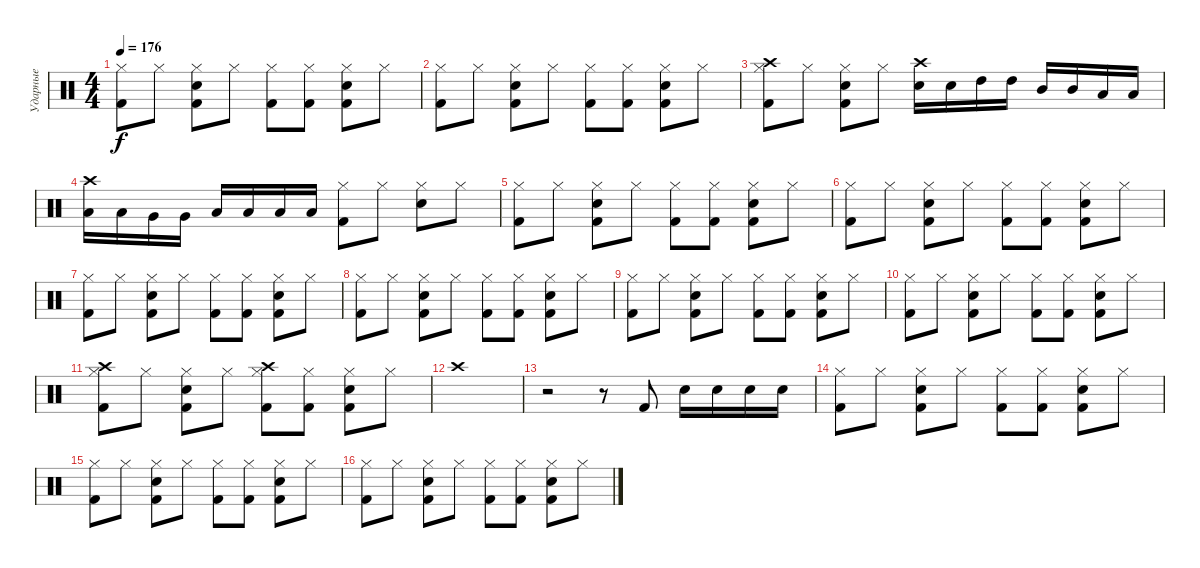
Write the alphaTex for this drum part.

\track ("Ударные" "Ударные") {instrument percussion}
\staff {score}
\articulation defaults
\ts (4 4)
\tempo 176
\clef neutral
\ks c
("Hi-Hat (closed)" "Kick (hit) 2").8{dy f} "Hi-Hat (closed)".8 ("Hi-Hat (closed)" "Kick (hit) 2" "Snare (hit) 2").8 "Hi-Hat (closed)".8 ("Hi-Hat (closed)" "Kick (hit) 2").8 ("Hi-Hat (closed)" "Kick (hit) 2").8 ("Hi-Hat (closed)" "Kick (hit) 2" "Snare (hit) 2").8 "Hi-Hat (closed)".8 |
("Hi-Hat (closed)" "Kick (hit) 2").8 "Hi-Hat (closed)".8 ("Hi-Hat (closed)" "Kick (hit) 2" "Snare (hit) 2").8 "Hi-Hat (closed)".8 ("Hi-Hat (closed)" "Kick (hit) 2").8 ("Hi-Hat (closed)" "Kick (hit) 2").8 ("Hi-Hat (closed)" "Kick (hit) 2" "Snare (hit) 2").8 "Hi-Hat (closed)".8 |
("Hi-Hat (closed)" "Kick (hit) 2" "Crash high (hit)").8 "Hi-Hat (closed)".8 ("Hi-Hat (closed)" "Kick (hit) 2" "Snare (hit) 2").8 "Hi-Hat (closed)".8 ("Snare (hit) 2" "Crash high (hit)").16 "Snare (hit) 2".16 "High Tom (hit)".16 "High Tom (hit)".16 "Mid Tom (hit)".16 "Mid Tom (hit)".16 "Low Tom (hit)".16 "Low Tom (hit)".16 |
("Low Tom (hit)" "Crash high (hit)").16 "Low Tom (hit)".16 "Very Low Tom (hit)".16 "Very Low Tom (hit)".16 "Low Floor Tom (hit)".16 "Low Floor Tom (hit)".16 "Low Floor Tom (hit)".16 "Low Floor Tom (hit)".16 ("Hi-Hat (closed)" "Kick (hit) 2").8 "Hi-Hat (closed)".8 ("Hi-Hat (closed)" "Snare (hit) 2").8 "Hi-Hat (closed)".8 |
("Hi-Hat (closed)" "Kick (hit) 2").8 "Hi-Hat (closed)".8 ("Hi-Hat (closed)" "Kick (hit) 2" "Snare (hit) 2").8 "Hi-Hat (closed)".8 ("Hi-Hat (closed)" "Kick (hit) 2").8 ("Hi-Hat (closed)" "Kick (hit) 2").8 ("Hi-Hat (closed)" "Kick (hit) 2" "Snare (hit) 2").8 "Hi-Hat (closed)".8 |
("Hi-Hat (closed)" "Kick (hit) 2").8 "Hi-Hat (closed)".8 ("Hi-Hat (closed)" "Kick (hit) 2" "Snare (hit) 2").8 "Hi-Hat (closed)".8 ("Hi-Hat (closed)" "Kick (hit) 2").8 ("Hi-Hat (closed)" "Kick (hit) 2").8 ("Hi-Hat (closed)" "Kick (hit) 2" "Snare (hit) 2").8 "Hi-Hat (closed)".8 |
("Hi-Hat (closed)" "Kick (hit) 2").8 "Hi-Hat (closed)".8 ("Hi-Hat (closed)" "Kick (hit) 2" "Snare (hit) 2").8 "Hi-Hat (closed)".8 ("Hi-Hat (closed)" "Kick (hit) 2").8 ("Hi-Hat (closed)" "Kick (hit) 2").8 ("Hi-Hat (closed)" "Kick (hit) 2" "Snare (hit) 2").8 "Hi-Hat (closed)".8 |
("Hi-Hat (closed)" "Kick (hit) 2").8 "Hi-Hat (closed)".8 ("Hi-Hat (closed)" "Kick (hit) 2" "Snare (hit) 2").8 "Hi-Hat (closed)".8 ("Hi-Hat (closed)" "Kick (hit) 2").8 ("Hi-Hat (closed)" "Kick (hit) 2").8 ("Hi-Hat (closed)" "Kick (hit) 2" "Snare (hit) 2").8 "Hi-Hat (closed)".8 |
("Hi-Hat (closed)" "Kick (hit) 2").8 "Hi-Hat (closed)".8 ("Hi-Hat (closed)" "Kick (hit) 2" "Snare (hit) 2").8 "Hi-Hat (closed)".8 ("Hi-Hat (closed)" "Kick (hit) 2").8 ("Hi-Hat (closed)" "Kick (hit) 2").8 ("Hi-Hat (closed)" "Kick (hit) 2" "Snare (hit) 2").8 "Hi-Hat (closed)".8 |
("Hi-Hat (closed)" "Kick (hit) 2").8 "Hi-Hat (closed)".8 ("Hi-Hat (closed)" "Kick (hit) 2" "Snare (hit) 2").8 "Hi-Hat (closed)".8 ("Hi-Hat (closed)" "Kick (hit) 2").8 ("Hi-Hat (closed)" "Kick (hit) 2").8 ("Hi-Hat (closed)" "Kick (hit) 2" "Snare (hit) 2").8 "Hi-Hat (closed)".8 |
("Hi-Hat (closed)" "Kick (hit) 2" "Crash high (hit)").8 "Hi-Hat (closed)".8 ("Hi-Hat (closed)" "Kick (hit) 2" "Snare (hit) 2").8 "Hi-Hat (closed)".8 ("Hi-Hat (closed)" "Kick (hit) 2" "Crash high (hit)").8 ("Hi-Hat (closed)" "Kick (hit) 2").8 ("Hi-Hat (closed)" "Kick (hit) 2" "Snare (hit) 2").8 "Hi-Hat (closed)".8 |
"Crash high (hit)".1 |
r.2 r.8 "Kick (hit) 2".8 "Snare (hit) 2".16 "Snare (hit) 2".16 "Snare (hit) 2".16 "Snare (hit) 2".16 |
("Hi-Hat (closed)" "Kick (hit) 2").8 "Hi-Hat (closed)".8 ("Hi-Hat (closed)" "Kick (hit) 2" "Snare (hit) 2").8 "Hi-Hat (closed)".8 ("Hi-Hat (closed)" "Kick (hit) 2").8 ("Hi-Hat (closed)" "Kick (hit) 2").8 ("Hi-Hat (closed)" "Kick (hit) 2" "Snare (hit) 2").8 "Hi-Hat (closed)".8 |
("Hi-Hat (closed)" "Kick (hit) 2").8 "Hi-Hat (closed)".8 ("Hi-Hat (closed)" "Kick (hit) 2" "Snare (hit) 2").8 "Hi-Hat (closed)".8 ("Hi-Hat (closed)" "Kick (hit) 2").8 ("Hi-Hat (closed)" "Kick (hit) 2").8 ("Hi-Hat (closed)" "Kick (hit) 2" "Snare (hit) 2").8 "Hi-Hat (closed)".8 |
("Hi-Hat (closed)" "Kick (hit) 2").8 "Hi-Hat (closed)".8 ("Hi-Hat (closed)" "Kick (hit) 2" "Snare (hit) 2").8 "Hi-Hat (closed)".8 ("Hi-Hat (closed)" "Kick (hit) 2").8 ("Hi-Hat (closed)" "Kick (hit) 2").8 ("Hi-Hat (closed)" "Kick (hit) 2" "Snare (hit) 2").8 "Hi-Hat (closed)".8
